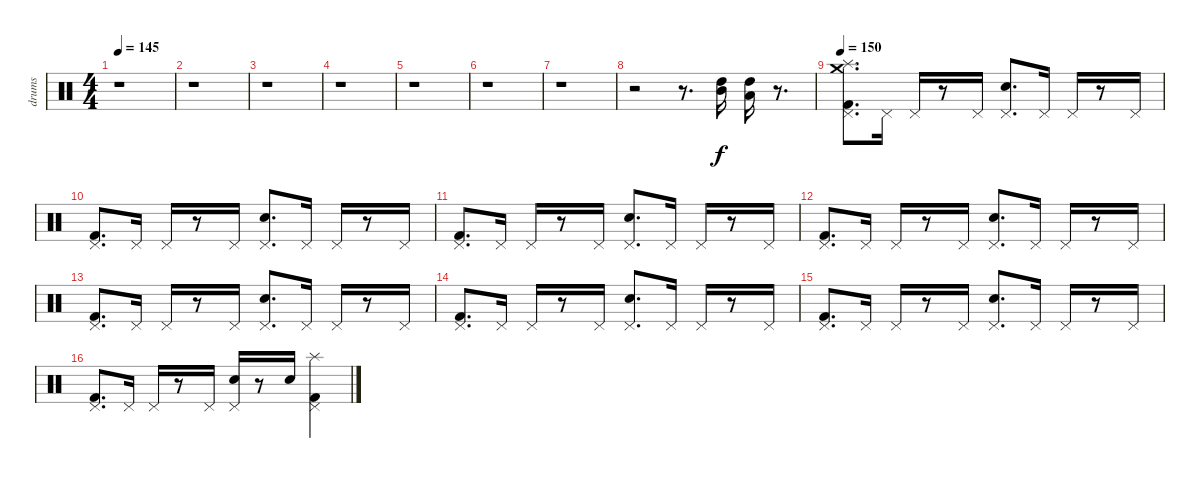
\track ("drums" "drums") {instrument percussion}
\staff {score}
\articulation defaults
\ts (4 4)
\tempo 145
\clef neutral
\ks c
r.1{dy f} |
r.1 |
r.1 |
r.1 |
r.1 |
r.1 |
r.1 |
r.2 r.8{d} ("High Tom (hit)" "Mid Tom (hit)").16 ("High Tom (hit)" "Low Tom (hit)").16 r.8{d} |
\tempo 150
("Crash medium (hit)" "Splash (hit)" "Kick (hit) 2" "Pedal Hi-Hat (hit)").8{d} "Pedal Hi-Hat (hit)".16 "Pedal Hi-Hat (hit)".16 r.8 "Pedal Hi-Hat (hit)".16 ("Pedal Hi-Hat (hit)" "Snare (hit) 2").8{d} "Pedal Hi-Hat (hit)".16 "Pedal Hi-Hat (hit)".16 r.8 "Pedal Hi-Hat (hit)".16 |
("Kick (hit) 2" "Pedal Hi-Hat (hit)").8{d} "Pedal Hi-Hat (hit)".16 "Pedal Hi-Hat (hit)".16 r.8 "Pedal Hi-Hat (hit)".16 ("Pedal Hi-Hat (hit)" "Snare (hit) 2").8{d} "Pedal Hi-Hat (hit)".16 "Pedal Hi-Hat (hit)".16 r.8 "Pedal Hi-Hat (hit)".16 |
("Kick (hit) 2" "Pedal Hi-Hat (hit)").8{d} "Pedal Hi-Hat (hit)".16 "Pedal Hi-Hat (hit)".16 r.8 "Pedal Hi-Hat (hit)".16 ("Snare (hit) 2" "Pedal Hi-Hat (hit)").8{d} "Pedal Hi-Hat (hit)".16 "Pedal Hi-Hat (hit)".16 r.8 "Pedal Hi-Hat (hit)".16 |
("Kick (hit) 2" "Pedal Hi-Hat (hit)").8{d} "Pedal Hi-Hat (hit)".16 "Pedal Hi-Hat (hit)".16 r.8 "Pedal Hi-Hat (hit)".16 ("Snare (hit) 2" "Pedal Hi-Hat (hit)").8{d} "Pedal Hi-Hat (hit)".16 "Pedal Hi-Hat (hit)".16 r.8 "Pedal Hi-Hat (hit)".16 |
("Kick (hit) 2" "Pedal Hi-Hat (hit)").8{d} "Pedal Hi-Hat (hit)".16 "Pedal Hi-Hat (hit)".16 r.8 "Pedal Hi-Hat (hit)".16 ("Snare (hit) 2" "Pedal Hi-Hat (hit)").8{d} "Pedal Hi-Hat (hit)".16 "Pedal Hi-Hat (hit)".16 r.8 "Pedal Hi-Hat (hit)".16 |
("Kick (hit) 2" "Pedal Hi-Hat (hit)").8{d} "Pedal Hi-Hat (hit)".16 "Pedal Hi-Hat (hit)".16 r.8 "Pedal Hi-Hat (hit)".16 ("Snare (hit) 2" "Pedal Hi-Hat (hit)").8{d} "Pedal Hi-Hat (hit)".16 "Pedal Hi-Hat (hit)".16 r.8 "Pedal Hi-Hat (hit)".16 |
("Kick (hit) 2" "Pedal Hi-Hat (hit)").8{d} "Pedal Hi-Hat (hit)".16 "Pedal Hi-Hat (hit)".16 r.8 "Pedal Hi-Hat (hit)".16 ("Snare (hit) 2" "Pedal Hi-Hat (hit)").8{d} "Pedal Hi-Hat (hit)".16 "Pedal Hi-Hat (hit)".16 r.8 "Pedal Hi-Hat (hit)".16 |
("Kick (hit) 2" "Pedal Hi-Hat (hit)").8{d} "Pedal Hi-Hat (hit)".16 "Pedal Hi-Hat (hit)".16 r.8 "Pedal Hi-Hat (hit)".16 ("Pedal Hi-Hat (hit)" "Snare (hit) 2").16 r.8 "Snare (hit) 2".16 ("Pedal Hi-Hat (hit)" "Kick (hit) 2" "Splash (hit)").4
